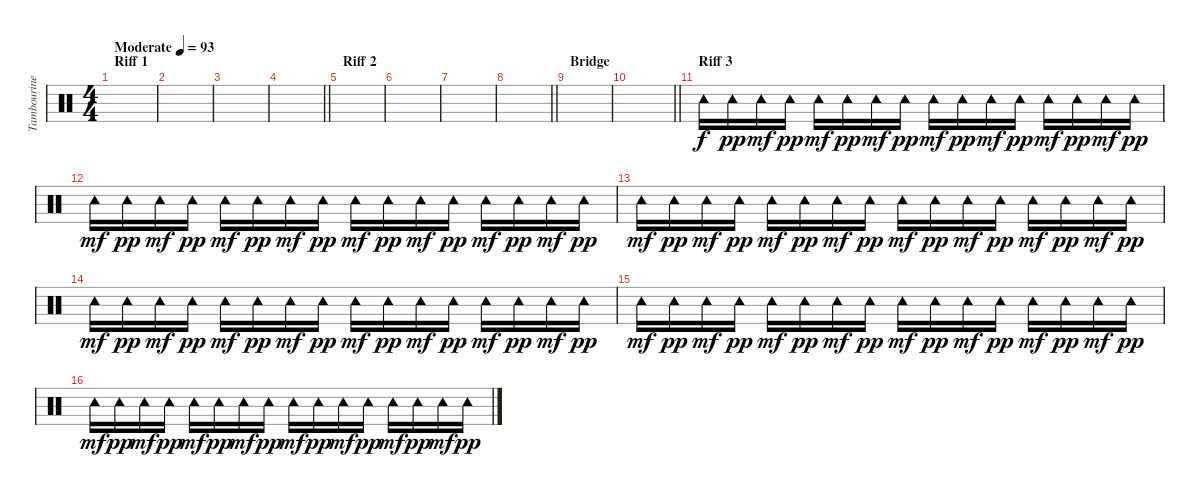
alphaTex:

\track ("Tambourine" "Tambourine") {instrument percussion}
\staff {score}
\articulation defaults
\ts (4 4)
\section ("" "Riff 1")
\tempo (93 "Moderate")
\clef neutral
\ks c
|
|
|
\barLineRight lightlight
|
\section ("" "Riff 2")
|
|
|
\barLineRight lightlight
|
\section ("" "Bridge")
|
\barLineRight lightlight
|
\section ("" "Riff 3")
"Tambourine (hit)".16 "Tambourine (hit)".16{dy pp} "Tambourine (hit)".16{dy mf} "Tambourine (hit)".16{dy pp} "Tambourine (hit)".16{dy mf} "Tambourine (hit)".16{dy pp} "Tambourine (hit)".16{dy mf} "Tambourine (hit)".16{dy pp} "Tambourine (hit)".16{dy mf} "Tambourine (hit)".16{dy pp} "Tambourine (hit)".16{dy mf} "Tambourine (hit)".16{dy pp} "Tambourine (hit)".16{dy mf} "Tambourine (hit)".16{dy pp} "Tambourine (hit)".16{dy mf} "Tambourine (hit)".16{dy pp} |
"Tambourine (hit)".16{dy mf} "Tambourine (hit)".16{dy pp} "Tambourine (hit)".16{dy mf} "Tambourine (hit)".16{dy pp} "Tambourine (hit)".16{dy mf} "Tambourine (hit)".16{dy pp} "Tambourine (hit)".16{dy mf} "Tambourine (hit)".16{dy pp} "Tambourine (hit)".16{dy mf} "Tambourine (hit)".16{dy pp} "Tambourine (hit)".16{dy mf} "Tambourine (hit)".16{dy pp} "Tambourine (hit)".16{dy mf} "Tambourine (hit)".16{dy pp} "Tambourine (hit)".16{dy mf} "Tambourine (hit)".16{dy pp} |
"Tambourine (hit)".16{dy mf} "Tambourine (hit)".16{dy pp} "Tambourine (hit)".16{dy mf} "Tambourine (hit)".16{dy pp} "Tambourine (hit)".16{dy mf} "Tambourine (hit)".16{dy pp} "Tambourine (hit)".16{dy mf} "Tambourine (hit)".16{dy pp} "Tambourine (hit)".16{dy mf} "Tambourine (hit)".16{dy pp} "Tambourine (hit)".16{dy mf} "Tambourine (hit)".16{dy pp} "Tambourine (hit)".16{dy mf} "Tambourine (hit)".16{dy pp} "Tambourine (hit)".16{dy mf} "Tambourine (hit)".16{dy pp} |
"Tambourine (hit)".16{dy mf} "Tambourine (hit)".16{dy pp} "Tambourine (hit)".16{dy mf} "Tambourine (hit)".16{dy pp} "Tambourine (hit)".16{dy mf} "Tambourine (hit)".16{dy pp} "Tambourine (hit)".16{dy mf} "Tambourine (hit)".16{dy pp} "Tambourine (hit)".16{dy mf} "Tambourine (hit)".16{dy pp} "Tambourine (hit)".16{dy mf} "Tambourine (hit)".16{dy pp} "Tambourine (hit)".16{dy mf} "Tambourine (hit)".16{dy pp} "Tambourine (hit)".16{dy mf} "Tambourine (hit)".16{dy pp} |
"Tambourine (hit)".16{dy mf} "Tambourine (hit)".16{dy pp} "Tambourine (hit)".16{dy mf} "Tambourine (hit)".16{dy pp} "Tambourine (hit)".16{dy mf} "Tambourine (hit)".16{dy pp} "Tambourine (hit)".16{dy mf} "Tambourine (hit)".16{dy pp} "Tambourine (hit)".16{dy mf} "Tambourine (hit)".16{dy pp} "Tambourine (hit)".16{dy mf} "Tambourine (hit)".16{dy pp} "Tambourine (hit)".16{dy mf} "Tambourine (hit)".16{dy pp} "Tambourine (hit)".16{dy mf} "Tambourine (hit)".16{dy pp} |
"Tambourine (hit)".16{dy mf} "Tambourine (hit)".16{dy pp} "Tambourine (hit)".16{dy mf} "Tambourine (hit)".16{dy pp} "Tambourine (hit)".16{dy mf} "Tambourine (hit)".16{dy pp} "Tambourine (hit)".16{dy mf} "Tambourine (hit)".16{dy pp} "Tambourine (hit)".16{dy mf} "Tambourine (hit)".16{dy pp} "Tambourine (hit)".16{dy mf} "Tambourine (hit)".16{dy pp} "Tambourine (hit)".16{dy mf} "Tambourine (hit)".16{dy pp} "Tambourine (hit)".16{dy mf} "Tambourine (hit)".16{dy pp}
